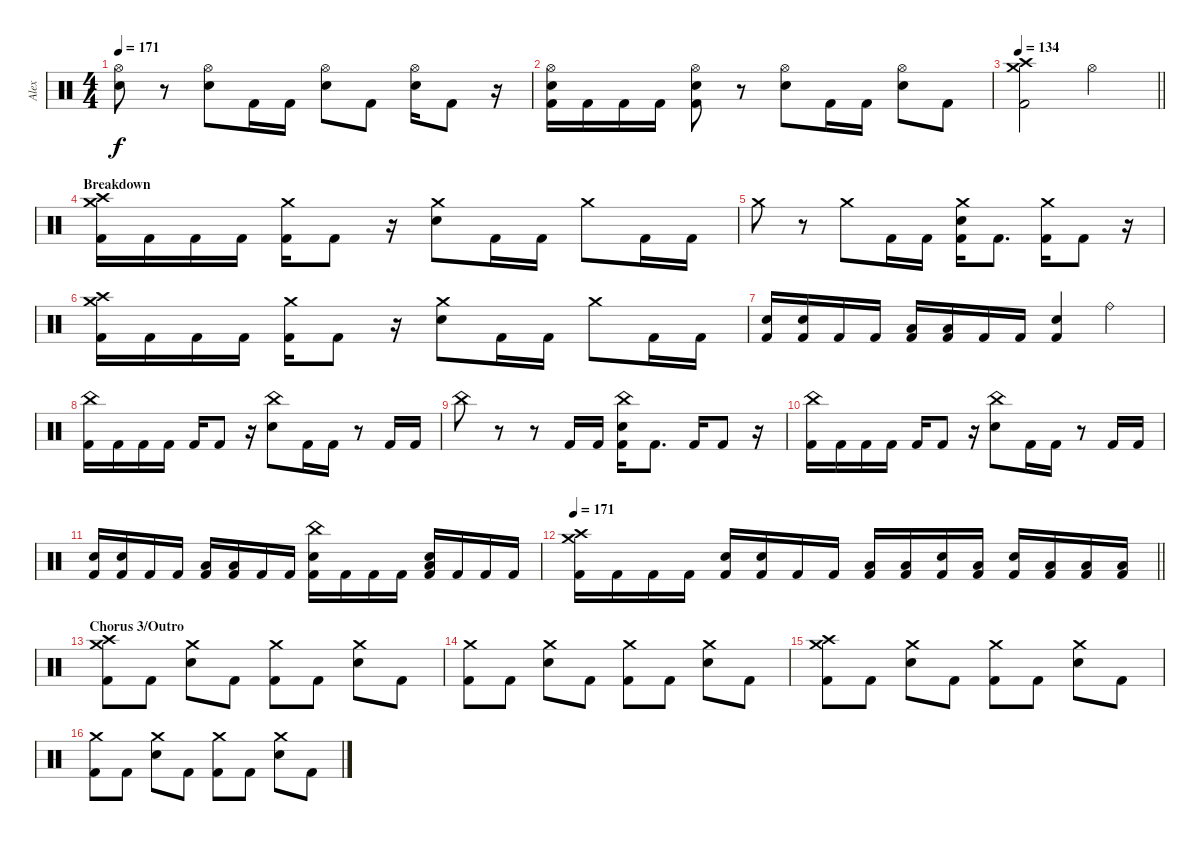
\track ("Alex" "Alex") {instrument percussion}
\staff
\articulation defaults
\ts (4 4)
\tempo 171
\clef neutral
\ks c
("Hi-Hat (open)" "Electric Snare (hit)").8{dy f} r.8 ("Hi-Hat (open)" "Electric Snare (hit)").8 "Kick (hit) 2".16 "Kick (hit) 2".16 ("Hi-Hat (open)" "Electric Snare (hit)").8 "Kick (hit) 2".8 ("Hi-Hat (open)" "Electric Snare (hit)").16 "Kick (hit) 2".8 r.16 |
("Hi-Hat (open)" "Electric Snare (hit)" "Kick (hit) 2").16 "Kick (hit) 2".16 "Kick (hit) 2".16 "Kick (hit) 2".16 ("Hi-Hat (open)" "Electric Snare (hit)" "Kick (hit) 2").8 r.8 ("Hi-Hat (open)" "Electric Snare (hit)").8 "Kick (hit) 2".16 "Kick (hit) 2".16 ("Hi-Hat (open)" "Electric Snare (hit)").8 "Kick (hit) 2".8 |
\tempo 134
\barLineRight lightlight
("Crash medium (hit)" "Crash high (hit)" "Kick (hit) 2").2 "Hi-Hat (open)".2 |
\section ("" "Breakdown")
("Crash medium (hit)" "Crash high (hit)" "Kick (hit) 2").16 "Kick (hit) 2".16 "Kick (hit) 2".16 "Kick (hit) 2".16 ("Crash medium (hit)" "Kick (hit) 2").16 "Kick (hit) 2".8 r.16 ("Crash medium (hit)" "Electric Snare (hit)").8 "Kick (hit) 2".16 "Kick (hit) 2".16 "Crash medium (hit)".8 "Kick (hit) 2".16 "Kick (hit) 2".16 |
"Crash medium (hit)".8 r.8 "Crash medium (hit)".8 "Kick (hit) 2".16 "Kick (hit) 2".16 ("Crash medium (hit)" "Electric Snare (hit)" "Kick (hit) 2").16 "Kick (hit) 2".8{d} ("Crash medium (hit)" "Kick (hit) 2").16 "Kick (hit) 2".8 r.16 |
("Crash medium (hit)" "Crash high (hit)" "Kick (hit) 2").16 "Kick (hit) 2".16 "Kick (hit) 2".16 "Kick (hit) 2".16 ("Crash medium (hit)" "Kick (hit) 2").16 "Kick (hit) 2".8 r.16 ("Crash medium (hit)" "Electric Snare (hit)").8 "Kick (hit) 2".16 "Kick (hit) 2".16 "Crash medium (hit)".8 "Kick (hit) 2".16 "Kick (hit) 2".16 |
("Electric Snare (hit)" "Kick (hit) 2").16 ("Electric Snare (hit)" "Kick (hit) 2").16 "Kick (hit) 2".16 "Kick (hit) 2".16 ("Low Floor Tom (hit)" "Kick (hit) 2").16 ("Low Floor Tom (hit)" "Kick (hit) 2").16 "Kick (hit) 2".16 "Kick (hit) 2".16 ("Electric Snare (hit)" "Kick (hit) 2").4 "Ride (bell)".4 |
("China (hit)" "Kick (hit) 2").16 "Kick (hit) 2".16 "Kick (hit) 2".16 "Kick (hit) 2".16 "Kick (hit) 2".16 "Kick (hit) 2".8 r.16 ("China (hit)" "Electric Snare (hit)").8 "Kick (hit) 2".16 "Kick (hit) 2".16 r.8 "Kick (hit) 2".16 "Kick (hit) 2".16 |
"China (hit)".8 r.8 r.8 "Kick (hit) 2".16 "Kick (hit) 2".16 ("China (hit)" "Electric Snare (hit)" "Kick (hit) 2").16 "Kick (hit) 2".8{d} "Kick (hit) 2".16 "Kick (hit) 2".8 r.16 |
("China (hit)" "Kick (hit) 2").16 "Kick (hit) 2".16 "Kick (hit) 2".16 "Kick (hit) 2".16 "Kick (hit) 2".16 "Kick (hit) 2".8 r.16 ("China (hit)" "Electric Snare (hit)").8 "Kick (hit) 2".16 "Kick (hit) 2".16 r.8 "Kick (hit) 2".16 "Kick (hit) 2".16 |
("Electric Snare (hit)" "Kick (hit) 2").16 ("Electric Snare (hit)" "Kick (hit) 2").16 "Kick (hit) 2".16 "Kick (hit) 2".16 ("Low Floor Tom (hit)" "Kick (hit) 2").16 ("Low Floor Tom (hit)" "Kick (hit) 2").16 "Kick (hit) 2".16 "Kick (hit) 2".16 ("China (hit)" "Electric Snare (hit)" "Kick (hit) 2").16 "Kick (hit) 2".16 "Kick (hit) 2".16 "Kick (hit) 2".16 ("Electric Snare (hit)" "Low Floor Tom (hit)" "Kick (hit) 2").16 "Kick (hit) 2".16 "Kick (hit) 2".16 "Kick (hit) 2".16 |
\tempo 171
\barLineRight lightlight
("Crash medium (hit)" "Crash high (hit)" "Kick (hit) 2").16 "Kick (hit) 2".16 "Kick (hit) 2".16 "Kick (hit) 2".16 ("Electric Snare (hit)" "Kick (hit) 2").16 ("Electric Snare (hit)" "Kick (hit) 2").16 "Kick (hit) 2".16 "Kick (hit) 2".16 ("Low Tom (hit)" "Kick (hit) 2").16 ("Low Tom (hit)" "Kick (hit) 2").16 ("Electric Snare (hit)" "Kick (hit) 2").16 ("Low Tom (hit)" "Kick (hit) 2").16 ("Electric Snare (hit)" "Kick (hit) 2").16 ("Low Tom (hit)" "Kick (hit) 2").16 ("Low Tom (hit)" "Kick (hit) 2").16 ("Low Tom (hit)" "Kick (hit) 2").16 |
\section ("" "Chorus 3/Outro")
("Crash medium (hit)" "Crash high (hit)" "Kick (hit) 2").8 "Kick (hit) 2".8 ("Crash medium (hit)" "Electric Snare (hit)").8 "Kick (hit) 2".8 ("Crash medium (hit)" "Kick (hit) 2").8 "Kick (hit) 2".8 ("Crash medium (hit)" "Electric Snare (hit)").8 "Kick (hit) 2".8 |
("Crash medium (hit)" "Kick (hit) 2").8 "Kick (hit) 2".8 ("Crash medium (hit)" "Electric Snare (hit)").8 "Kick (hit) 2".8 ("Crash medium (hit)" "Kick (hit) 2").8 "Kick (hit) 2".8 ("Crash medium (hit)" "Electric Snare (hit)").8 "Kick (hit) 2".8 |
("Crash medium (hit)" "Crash high (hit)" "Kick (hit) 2").8 "Kick (hit) 2".8 ("Crash medium (hit)" "Electric Snare (hit)").8 "Kick (hit) 2".8 ("Crash medium (hit)" "Kick (hit) 2").8 "Kick (hit) 2".8 ("Crash medium (hit)" "Electric Snare (hit)").8 "Kick (hit) 2".8 |
("Crash medium (hit)" "Kick (hit) 2").8 "Kick (hit) 2".8 ("Crash medium (hit)" "Electric Snare (hit)").8 "Kick (hit) 2".8 ("Crash medium (hit)" "Kick (hit) 2").8 "Kick (hit) 2".8 ("Crash medium (hit)" "Electric Snare (hit)").8 "Kick (hit) 2".8
